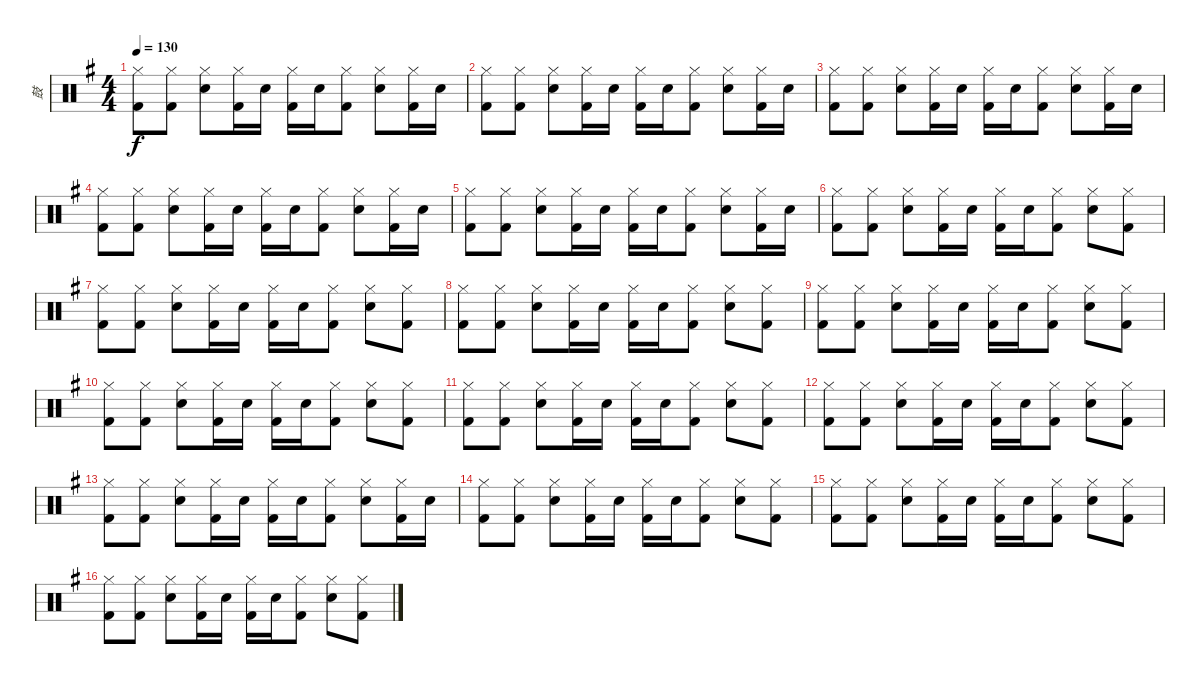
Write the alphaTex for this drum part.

\track ("鼓" "鼓") {instrument percussion}
\staff {score}
\articulation defaults
\ts (4 4)
\tempo 130
\clef neutral
\ks g
("Hi-Hat (closed)" "Kick (hit) 2").8{dy f} ("Hi-Hat (closed)" "Kick (hit) 2").8 ("Hi-Hat (closed)" "Snare (hit) 2").8 ("Hi-Hat (closed)" "Kick (hit) 2").16 "Snare (hit) 2".16 ("Hi-Hat (closed)" "Kick (hit) 2").16 "Snare (hit) 2".16 ("Hi-Hat (closed)" "Kick (hit) 2").8 ("Hi-Hat (closed)" "Snare (hit) 2").8 ("Hi-Hat (closed)" "Kick (hit) 2").16 "Snare (hit) 2".16 |
("Hi-Hat (closed)" "Kick (hit) 2").8 ("Hi-Hat (closed)" "Kick (hit) 2").8 ("Hi-Hat (closed)" "Snare (hit) 2").8 ("Hi-Hat (closed)" "Kick (hit) 2").16 "Snare (hit) 2".16 ("Hi-Hat (closed)" "Kick (hit) 2").16 "Snare (hit) 2".16 ("Hi-Hat (closed)" "Kick (hit) 2").8 ("Hi-Hat (closed)" "Snare (hit) 2").8 ("Hi-Hat (closed)" "Kick (hit) 2").16 "Snare (hit) 2".16 |
("Hi-Hat (closed)" "Kick (hit) 2").8 ("Hi-Hat (closed)" "Kick (hit) 2").8 ("Hi-Hat (closed)" "Snare (hit) 2").8 ("Hi-Hat (closed)" "Kick (hit) 2").16 "Snare (hit) 2".16 ("Hi-Hat (closed)" "Kick (hit) 2").16 "Snare (hit) 2".16 ("Hi-Hat (closed)" "Kick (hit) 2").8 ("Hi-Hat (closed)" "Snare (hit) 2").8 ("Hi-Hat (closed)" "Kick (hit) 2").16 "Snare (hit) 2".16 |
("Hi-Hat (closed)" "Kick (hit) 2").8 ("Hi-Hat (closed)" "Kick (hit) 2").8 ("Hi-Hat (closed)" "Snare (hit) 2").8 ("Hi-Hat (closed)" "Kick (hit) 2").16 "Snare (hit) 2".16 ("Hi-Hat (closed)" "Kick (hit) 2").16 "Snare (hit) 2".16 ("Hi-Hat (closed)" "Kick (hit) 2").8 ("Hi-Hat (closed)" "Snare (hit) 2").8 ("Hi-Hat (closed)" "Kick (hit) 2").16 "Snare (hit) 2".16 |
("Hi-Hat (closed)" "Kick (hit) 2").8 ("Hi-Hat (closed)" "Kick (hit) 2").8 ("Hi-Hat (closed)" "Snare (hit) 2").8 ("Hi-Hat (closed)" "Kick (hit) 2").16 "Snare (hit) 2".16 ("Hi-Hat (closed)" "Kick (hit) 2").16 "Snare (hit) 2".16 ("Hi-Hat (closed)" "Kick (hit) 2").8 ("Hi-Hat (closed)" "Snare (hit) 2").8 ("Hi-Hat (closed)" "Kick (hit) 2").16 "Snare (hit) 2".16 |
("Hi-Hat (closed)" "Kick (hit) 2").8 ("Hi-Hat (closed)" "Kick (hit) 2").8 ("Hi-Hat (closed)" "Snare (hit) 2").8 ("Hi-Hat (closed)" "Kick (hit) 2").16 "Snare (hit) 2".16 ("Hi-Hat (closed)" "Kick (hit) 2").16 "Snare (hit) 2".16 ("Hi-Hat (closed)" "Kick (hit) 2").8 ("Hi-Hat (closed)" "Snare (hit) 2").8 ("Hi-Hat (closed)" "Kick (hit) 2").8 |
("Hi-Hat (closed)" "Kick (hit) 2").8 ("Hi-Hat (closed)" "Kick (hit) 2").8 ("Hi-Hat (closed)" "Snare (hit) 2").8 ("Hi-Hat (closed)" "Kick (hit) 2").16 "Snare (hit) 2".16 ("Hi-Hat (closed)" "Kick (hit) 2").16 "Snare (hit) 2".16 ("Hi-Hat (closed)" "Kick (hit) 2").8 ("Hi-Hat (closed)" "Snare (hit) 2").8 ("Hi-Hat (closed)" "Kick (hit) 2").8 |
("Hi-Hat (closed)" "Kick (hit) 2").8 ("Hi-Hat (closed)" "Kick (hit) 2").8 ("Hi-Hat (closed)" "Snare (hit) 2").8 ("Hi-Hat (closed)" "Kick (hit) 2").16 "Snare (hit) 2".16 ("Hi-Hat (closed)" "Kick (hit) 2").16 "Snare (hit) 2".16 ("Hi-Hat (closed)" "Kick (hit) 2").8 ("Hi-Hat (closed)" "Snare (hit) 2").8 ("Hi-Hat (closed)" "Kick (hit) 2").8 |
("Hi-Hat (closed)" "Kick (hit) 2").8 ("Hi-Hat (closed)" "Kick (hit) 2").8 ("Hi-Hat (closed)" "Snare (hit) 2").8 ("Hi-Hat (closed)" "Kick (hit) 2").16 "Snare (hit) 2".16 ("Hi-Hat (closed)" "Kick (hit) 2").16 "Snare (hit) 2".16 ("Hi-Hat (closed)" "Kick (hit) 2").8 ("Hi-Hat (closed)" "Snare (hit) 2").8 ("Hi-Hat (closed)" "Kick (hit) 2").8 |
("Hi-Hat (closed)" "Kick (hit) 2").8 ("Hi-Hat (closed)" "Kick (hit) 2").8 ("Hi-Hat (closed)" "Snare (hit) 2").8 ("Hi-Hat (closed)" "Kick (hit) 2").16 "Snare (hit) 2".16 ("Hi-Hat (closed)" "Kick (hit) 2").16 "Snare (hit) 2".16 ("Hi-Hat (closed)" "Kick (hit) 2").8 ("Hi-Hat (closed)" "Snare (hit) 2").8 ("Hi-Hat (closed)" "Kick (hit) 2").8 |
("Hi-Hat (closed)" "Kick (hit) 2").8 ("Hi-Hat (closed)" "Kick (hit) 2").8 ("Hi-Hat (closed)" "Snare (hit) 2").8 ("Hi-Hat (closed)" "Kick (hit) 2").16 "Snare (hit) 2".16 ("Hi-Hat (closed)" "Kick (hit) 2").16 "Snare (hit) 2".16 ("Hi-Hat (closed)" "Kick (hit) 2").8 ("Hi-Hat (closed)" "Snare (hit) 2").8 ("Hi-Hat (closed)" "Kick (hit) 2").8 |
("Hi-Hat (closed)" "Kick (hit) 2").8 ("Hi-Hat (closed)" "Kick (hit) 2").8 ("Hi-Hat (closed)" "Snare (hit) 2").8 ("Hi-Hat (closed)" "Kick (hit) 2").16 "Snare (hit) 2".16 ("Hi-Hat (closed)" "Kick (hit) 2").16 "Snare (hit) 2".16 ("Hi-Hat (closed)" "Kick (hit) 2").8 ("Hi-Hat (closed)" "Snare (hit) 2").8 ("Hi-Hat (closed)" "Kick (hit) 2").8 |
("Hi-Hat (closed)" "Kick (hit) 2").8 ("Hi-Hat (closed)" "Kick (hit) 2").8 ("Hi-Hat (closed)" "Snare (hit) 2").8 ("Hi-Hat (closed)" "Kick (hit) 2").16 "Snare (hit) 2".16 ("Hi-Hat (closed)" "Kick (hit) 2").16 "Snare (hit) 2".16 ("Hi-Hat (closed)" "Kick (hit) 2").8 ("Hi-Hat (closed)" "Snare (hit) 2").8 ("Hi-Hat (closed)" "Kick (hit) 2").16 "Snare (hit) 2".16 |
("Hi-Hat (closed)" "Kick (hit) 2").8 ("Hi-Hat (closed)" "Kick (hit) 2").8 ("Hi-Hat (closed)" "Snare (hit) 2").8 ("Hi-Hat (closed)" "Kick (hit) 2").16 "Snare (hit) 2".16 ("Hi-Hat (closed)" "Kick (hit) 2").16 "Snare (hit) 2".16 ("Hi-Hat (closed)" "Kick (hit) 2").8 ("Hi-Hat (closed)" "Snare (hit) 2").8 ("Hi-Hat (closed)" "Kick (hit) 2").8 |
("Hi-Hat (closed)" "Kick (hit) 2").8 ("Hi-Hat (closed)" "Kick (hit) 2").8 ("Hi-Hat (closed)" "Snare (hit) 2").8 ("Hi-Hat (closed)" "Kick (hit) 2").16 "Snare (hit) 2".16 ("Hi-Hat (closed)" "Kick (hit) 2").16 "Snare (hit) 2".16 ("Hi-Hat (closed)" "Kick (hit) 2").8 ("Hi-Hat (closed)" "Snare (hit) 2").8 ("Hi-Hat (closed)" "Kick (hit) 2").8 |
("Hi-Hat (closed)" "Kick (hit) 2").8 ("Hi-Hat (closed)" "Kick (hit) 2").8 ("Hi-Hat (closed)" "Snare (hit) 2").8 ("Hi-Hat (closed)" "Kick (hit) 2").16 "Snare (hit) 2".16 ("Hi-Hat (closed)" "Kick (hit) 2").16 "Snare (hit) 2".16 ("Hi-Hat (closed)" "Kick (hit) 2").8 ("Hi-Hat (closed)" "Snare (hit) 2").8 ("Hi-Hat (closed)" "Kick (hit) 2").8
